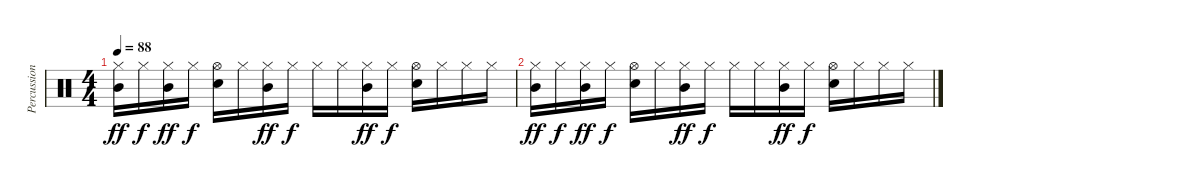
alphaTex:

\track ("Percussion" "Percussion") {instrument percussion}
\staff {score}
\articulation defaults
\ts (4 4)
\tempo 88
\clef neutral
\ks c
("Hi-Hat (closed)" "Mid Tom (hit)").16{dy ff volume 0} "Hi-Hat (closed)".16{dy f} ("Hi-Hat (closed)" "Mid Tom (hit)").16{dy ff} "Hi-Hat (closed)".16{dy f} ("Hi-Hat (open)" "Electric Snare (hit)").16 "Hi-Hat (closed)".16 ("Hi-Hat (closed)" "Mid Tom (hit)").16{dy ff} "Hi-Hat (closed)".16{dy f} "Hi-Hat (closed)".16 "Hi-Hat (closed)".16 ("Hi-Hat (closed)" "Mid Tom (hit)").16{dy ff} "Hi-Hat (closed)".16{dy f} ("Hi-Hat (open)" "Electric Snare (hit)").16 "Hi-Hat (closed)".16 "Hi-Hat (closed)".16 "Hi-Hat (closed)".16 |
("Hi-Hat (closed)" "Mid Tom (hit)").16{dy ff} "Hi-Hat (closed)".16{dy f} ("Hi-Hat (closed)" "Mid Tom (hit)").16{dy ff} "Hi-Hat (closed)".16{dy f} ("Hi-Hat (open)" "Electric Snare (hit)").16 "Hi-Hat (closed)".16 ("Hi-Hat (closed)" "Mid Tom (hit)").16{dy ff} "Hi-Hat (closed)".16{dy f} "Hi-Hat (closed)".16 "Hi-Hat (closed)".16 ("Hi-Hat (closed)" "Mid Tom (hit)").16{dy ff} "Hi-Hat (closed)".16{dy f} ("Hi-Hat (open)" "Electric Snare (hit)").16 "Hi-Hat (closed)".16 "Hi-Hat (closed)".16 "Hi-Hat (closed)".16
